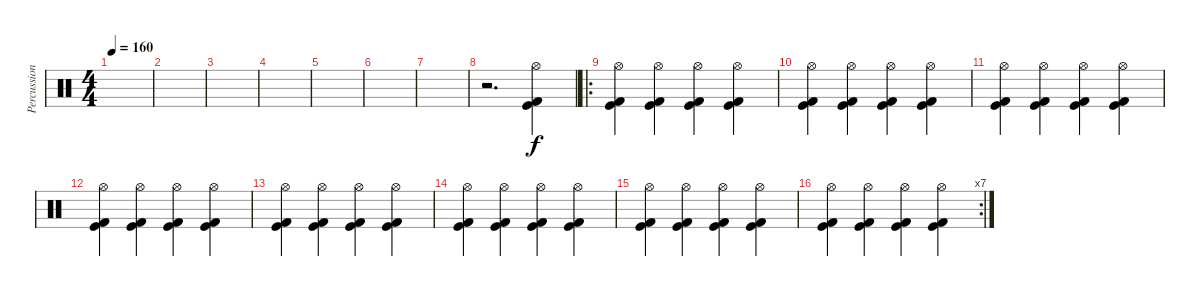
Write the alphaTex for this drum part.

\track ("Percussioni" "Percussion") {instrument percussion}
\staff {score}
\articulation defaults
\ts (4 4)
\tempo 160
\clef neutral
\ks c
|
|
|
|
|
|
|
r.2{d} ("Hi-Hat (open)" "Kick (hit)" "Kick (hit) 2").4 |
\ro
("Hi-Hat (open)" "Kick (hit)" "Kick (hit) 2").4 ("Hi-Hat (open)" "Kick (hit)" "Kick (hit) 2").4 ("Hi-Hat (open)" "Kick (hit)" "Kick (hit) 2").4 ("Hi-Hat (open)" "Kick (hit)" "Kick (hit) 2").4 |
("Hi-Hat (open)" "Kick (hit)" "Kick (hit) 2").4 ("Hi-Hat (open)" "Kick (hit)" "Kick (hit) 2").4 ("Hi-Hat (open)" "Kick (hit)" "Kick (hit) 2").4 ("Hi-Hat (open)" "Kick (hit)" "Kick (hit) 2").4 |
("Hi-Hat (open)" "Kick (hit)" "Kick (hit) 2").4 ("Hi-Hat (open)" "Kick (hit)" "Kick (hit) 2").4 ("Hi-Hat (open)" "Kick (hit)" "Kick (hit) 2").4 ("Hi-Hat (open)" "Kick (hit)" "Kick (hit) 2").4 |
("Hi-Hat (open)" "Kick (hit)" "Kick (hit) 2").4 ("Hi-Hat (open)" "Kick (hit)" "Kick (hit) 2").4 ("Hi-Hat (open)" "Kick (hit)" "Kick (hit) 2").4 ("Hi-Hat (open)" "Kick (hit)" "Kick (hit) 2").4 |
("Hi-Hat (open)" "Kick (hit)" "Kick (hit) 2").4 ("Hi-Hat (open)" "Kick (hit)" "Kick (hit) 2").4 ("Hi-Hat (open)" "Kick (hit)" "Kick (hit) 2").4 ("Hi-Hat (open)" "Kick (hit)" "Kick (hit) 2").4 |
("Hi-Hat (open)" "Kick (hit)" "Kick (hit) 2").4 ("Hi-Hat (open)" "Kick (hit)" "Kick (hit) 2").4 ("Hi-Hat (open)" "Kick (hit)" "Kick (hit) 2").4 ("Hi-Hat (open)" "Kick (hit)" "Kick (hit) 2").4 |
("Hi-Hat (open)" "Kick (hit)" "Kick (hit) 2").4 ("Hi-Hat (open)" "Kick (hit)" "Kick (hit) 2").4 ("Hi-Hat (open)" "Kick (hit)" "Kick (hit) 2").4 ("Hi-Hat (open)" "Kick (hit)" "Kick (hit) 2").4 |
\rc 7
("Hi-Hat (open)" "Kick (hit)" "Kick (hit) 2").4 ("Hi-Hat (open)" "Kick (hit)" "Kick (hit) 2").4 ("Hi-Hat (open)" "Kick (hit)" "Kick (hit) 2").4 ("Hi-Hat (open)" "Kick (hit)" "Kick (hit) 2").4
